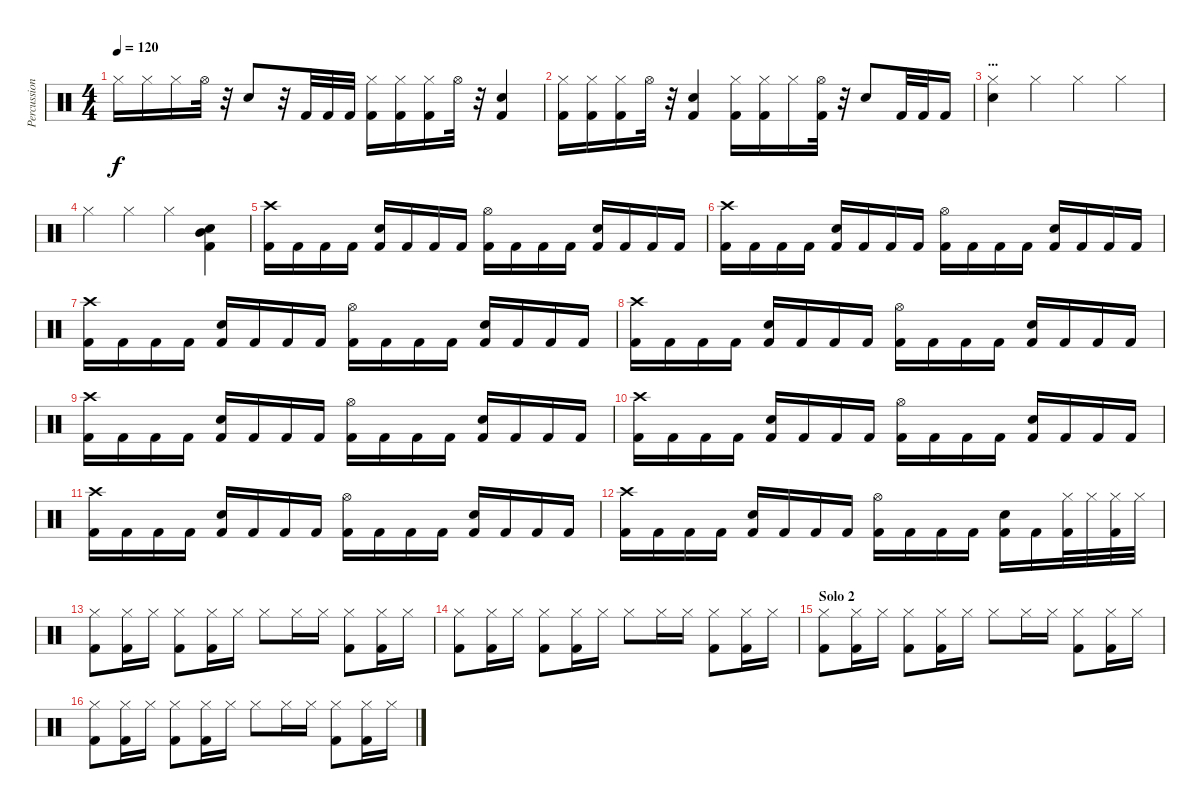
\track ("Percussion" "Percussion") {instrument percussion}
\staff {score}
\articulation defaults
\ts (4 4)
\tempo 120
\clef neutral
\ks c "Hi-Hat (closed)".16{dy f} "Hi-Hat (closed)".16 "Hi-Hat (closed)".16 "Hi-Hat (open)".32
r.32 "Electric Snare (hit)".8 r.32 "Kick (hit) 2".32 "Kick (hit) 2".32 "Kick (hit) 2".32 ("Hi-Hat (closed)" "Kick (hit) 2").16 ("Hi-Hat (closed)" "Kick (hit) 2").16 ("Hi-Hat (closed)" "Kick (hit) 2").16 "Hi-Hat (open)".32 r.32 ("Electric Snare (hit)" "Kick (hit) 2").4 |
("Hi-Hat (closed)" "Kick (hit) 2").16 ("Hi-Hat (closed)" "Kick (hit) 2").16 ("Hi-Hat (closed)" "Kick (hit) 2").16 "Hi-Hat (open)".32 r.32 ("Electric Snare (hit)" "Kick (hit) 2").4 ("Hi-Hat (closed)" "Kick (hit) 2").16 ("Hi-Hat (closed)" "Kick (hit) 2").16 "Hi-Hat (closed)".16 ("Hi-Hat (open)" "Kick (hit) 2").32 r.32 "Electric Snare (hit)".8 "Kick (hit) 2".32 "Kick (hit) 2".32 "Kick (hit) 2".16 |
\section ("" "...")
("Hi-Hat (closed)" "Electric Snare (hit)").4 "Hi-Hat (closed)".4 "Hi-Hat (closed)".4 "Hi-Hat (closed)".4 |
"Hi-Hat (closed)".4 "Hi-Hat (closed)".4 "Hi-Hat (closed)".4 ("Mid Tom (hit)" "Electric Snare (hit)" "Kick (hit) 2").4 |
("Crash high (hit)" "Kick (hit) 2").16 "Kick (hit) 2".16 "Kick (hit) 2".16 "Kick (hit) 2".16 ("Electric Snare (hit)" "Kick (hit) 2").16 "Kick (hit) 2".16 "Kick (hit) 2".16 "Kick (hit) 2".16 ("Hi-Hat (open)" "Kick (hit) 2").16 "Kick (hit) 2".16 "Kick (hit) 2".16 "Kick (hit) 2".16 ("Electric Snare (hit)" "Kick (hit) 2").16 "Kick (hit) 2".16 "Kick (hit) 2".16 "Kick (hit) 2".16 |
("Crash high (hit)" "Kick (hit) 2").16 "Kick (hit) 2".16 "Kick (hit) 2".16 "Kick (hit) 2".16 ("Electric Snare (hit)" "Kick (hit) 2").16 "Kick (hit) 2".16 "Kick (hit) 2".16 "Kick (hit) 2".16 ("Hi-Hat (open)" "Kick (hit) 2").16 "Kick (hit) 2".16 "Kick (hit) 2".16 "Kick (hit) 2".16 ("Electric Snare (hit)" "Kick (hit) 2").16 "Kick (hit) 2".16 "Kick (hit) 2".16 "Kick (hit) 2".16 |
("Crash high (hit)" "Kick (hit) 2").16 "Kick (hit) 2".16 "Kick (hit) 2".16 "Kick (hit) 2".16 ("Electric Snare (hit)" "Kick (hit) 2").16 "Kick (hit) 2".16 "Kick (hit) 2".16 "Kick (hit) 2".16 ("Hi-Hat (open)" "Kick (hit) 2").16 "Kick (hit) 2".16 "Kick (hit) 2".16 "Kick (hit) 2".16 ("Electric Snare (hit)" "Kick (hit) 2").16 "Kick (hit) 2".16 "Kick (hit) 2".16 "Kick (hit) 2".16 |
("Crash high (hit)" "Kick (hit) 2").16 "Kick (hit) 2".16 "Kick (hit) 2".16 "Kick (hit) 2".16 ("Electric Snare (hit)" "Kick (hit) 2").16 "Kick (hit) 2".16 "Kick (hit) 2".16 "Kick (hit) 2".16 ("Hi-Hat (open)" "Kick (hit) 2").16 "Kick (hit) 2".16 "Kick (hit) 2".16 "Kick (hit) 2".16 ("Electric Snare (hit)" "Kick (hit) 2").16 "Kick (hit) 2".16 "Kick (hit) 2".16 "Kick (hit) 2".16 |
("Crash high (hit)" "Kick (hit) 2").16 "Kick (hit) 2".16 "Kick (hit) 2".16 "Kick (hit) 2".16 ("Electric Snare (hit)" "Kick (hit) 2").16 "Kick (hit) 2".16 "Kick (hit) 2".16 "Kick (hit) 2".16 ("Hi-Hat (open)" "Kick (hit) 2").16 "Kick (hit) 2".16 "Kick (hit) 2".16 "Kick (hit) 2".16 ("Electric Snare (hit)" "Kick (hit) 2").16 "Kick (hit) 2".16 "Kick (hit) 2".16 "Kick (hit) 2".16 |
("Crash high (hit)" "Kick (hit) 2").16 "Kick (hit) 2".16 "Kick (hit) 2".16 "Kick (hit) 2".16 ("Electric Snare (hit)" "Kick (hit) 2").16 "Kick (hit) 2".16 "Kick (hit) 2".16 "Kick (hit) 2".16 ("Hi-Hat (open)" "Kick (hit) 2").16 "Kick (hit) 2".16 "Kick (hit) 2".16 "Kick (hit) 2".16 ("Electric Snare (hit)" "Kick (hit) 2").16 "Kick (hit) 2".16 "Kick (hit) 2".16 "Kick (hit) 2".16 |
("Crash high (hit)" "Kick (hit) 2").16 "Kick (hit) 2".16 "Kick (hit) 2".16 "Kick (hit) 2".16 ("Electric Snare (hit)" "Kick (hit) 2").16 "Kick (hit) 2".16 "Kick (hit) 2".16 "Kick (hit) 2".16 ("Hi-Hat (open)" "Kick (hit) 2").16 "Kick (hit) 2".16 "Kick (hit) 2".16 "Kick (hit) 2".16 ("Electric Snare (hit)" "Kick (hit) 2").16 "Kick (hit) 2".16 "Kick (hit) 2".16 "Kick (hit) 2".16 |
("Crash high (hit)" "Kick (hit) 2").16 "Kick (hit) 2".16 "Kick (hit) 2".16 "Kick (hit) 2".16 ("Electric Snare (hit)" "Kick (hit) 2").16 "Kick (hit) 2".16 "Kick (hit) 2".16 "Kick (hit) 2".16 ("Hi-Hat (open)" "Kick (hit) 2").16 "Kick (hit) 2".16 "Kick (hit) 2".16 "Kick (hit) 2".16 ("Electric Snare (hit)" "Kick (hit) 2").16 "Kick (hit) 2".16 ("Hi-Hat (closed)" "Kick (hit) 2").32 "Hi-Hat (closed)".32 ("Hi-Hat (closed)" "Kick (hit) 2").32 "Hi-Hat (closed)".32 |
("Hi-Hat (closed)" "Kick (hit) 2").8 ("Hi-Hat (closed)" "Kick (hit) 2").16 "Hi-Hat (closed)".16 ("Hi-Hat (closed)" "Kick (hit) 2").8 ("Hi-Hat (closed)" "Kick (hit) 2").16 "Hi-Hat (closed)".16 "Hi-Hat (closed)".8 "Hi-Hat (closed)".16 "Hi-Hat (closed)".16 ("Hi-Hat (closed)" "Kick (hit) 2").8 ("Hi-Hat (closed)" "Kick (hit) 2").16 "Hi-Hat (closed)".16 |
("Hi-Hat (closed)" "Kick (hit) 2").8 ("Hi-Hat (closed)" "Kick (hit) 2").16 "Hi-Hat (closed)".16 ("Hi-Hat (closed)" "Kick (hit) 2").8 ("Hi-Hat (closed)" "Kick (hit) 2").16 "Hi-Hat (closed)".16 "Hi-Hat (closed)".8 "Hi-Hat (closed)".16 "Hi-Hat (closed)".16 ("Hi-Hat (closed)" "Kick (hit) 2").8 ("Hi-Hat (closed)" "Kick (hit) 2").16 "Hi-Hat (closed)".16 |
\section ("" "Solo 2")
("Hi-Hat (closed)" "Kick (hit) 2").8 ("Hi-Hat (closed)" "Kick (hit) 2").16 "Hi-Hat (closed)".16 ("Hi-Hat (closed)" "Kick (hit) 2").8 ("Hi-Hat (closed)" "Kick (hit) 2").16 "Hi-Hat (closed)".16 "Hi-Hat (closed)".8 "Hi-Hat (closed)".16 "Hi-Hat (closed)".16 ("Hi-Hat (closed)" "Kick (hit) 2").8 ("Hi-Hat (closed)" "Kick (hit) 2").16 "Hi-Hat (closed)".16 |
("Hi-Hat (closed)" "Kick (hit) 2").8 ("Hi-Hat (closed)" "Kick (hit) 2").16 "Hi-Hat (closed)".16 ("Hi-Hat (closed)" "Kick (hit) 2").8 ("Hi-Hat (closed)" "Kick (hit) 2").16 "Hi-Hat (closed)".16 "Hi-Hat (closed)".8 "Hi-Hat (closed)".16 "Hi-Hat (closed)".16 ("Hi-Hat (closed)" "Kick (hit) 2").8 ("Hi-Hat (closed)" "Kick (hit) 2").16 "Hi-Hat (closed)".16
